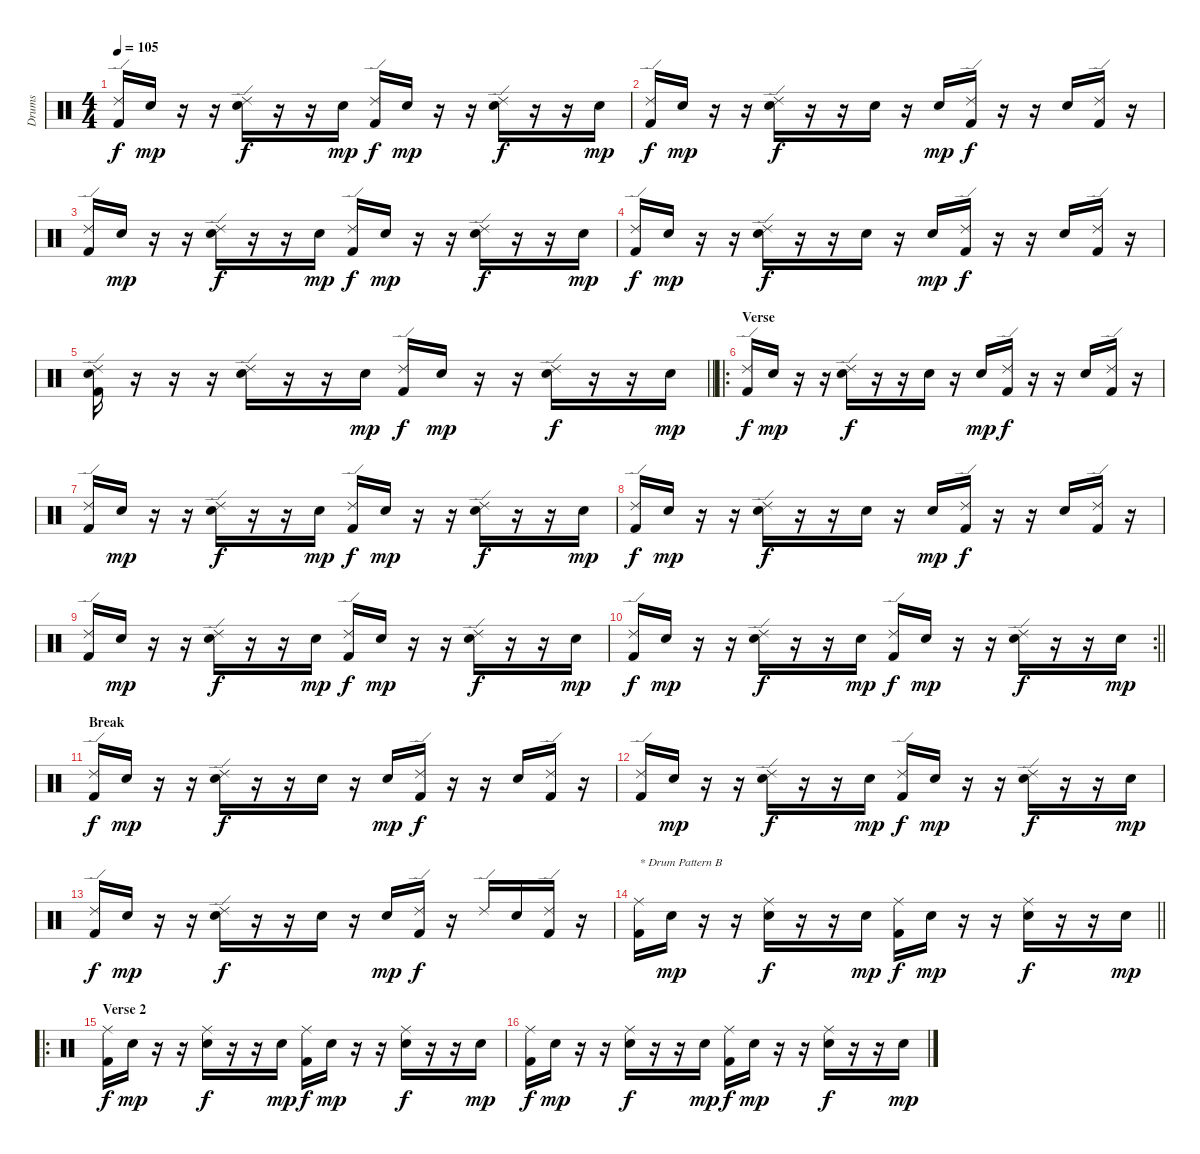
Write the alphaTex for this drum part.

\track ("Drums" "Drums") {instrument percussion}
\staff {score}
\articulation defaults
\ts (4 4)
\tempo 105
\clef neutral
\ks c
("Ride (edge) 2" "Kick (hit) 2").16{dy f} "Electric Snare (hit)".16{dy mp} r.16 r.16 ("Ride (edge) 2" "Electric Snare (hit)").16{dy f} r.16 r.16 "Electric Snare (hit)".16{dy mp} ("Ride (edge) 2" "Kick (hit) 2").16{dy f} "Electric Snare (hit)".16{dy mp} r.16 r.16 ("Ride (edge) 2" "Electric Snare (hit)").16{dy f} r.16 r.16 "Electric Snare (hit)".16{dy mp} |
("Ride (edge) 2" "Kick (hit) 2").16{dy f} "Electric Snare (hit)".16{dy mp} r.16 r.16 ("Ride (edge) 2" "Electric Snare (hit)").16{dy f} r.16 r.16 "Electric Snare (hit)".16 r.16 "Electric Snare (hit)".16{dy mp} ("Ride (edge) 2" "Kick (hit) 2").16{dy f} r.16 r.16 "Electric Snare (hit)".16 ("Ride (edge) 2" "Kick (hit) 2").16 r.16 |
("Ride (edge) 2" "Kick (hit) 2").16 "Electric Snare (hit)".16{dy mp} r.16 r.16 ("Ride (edge) 2" "Electric Snare (hit)").16{dy f} r.16 r.16 "Electric Snare (hit)".16{dy mp} ("Ride (edge) 2" "Kick (hit) 2").16{dy f} "Electric Snare (hit)".16{dy mp} r.16 r.16 ("Ride (edge) 2" "Electric Snare (hit)").16{dy f} r.16 r.16 "Electric Snare (hit)".16{dy mp} |
("Ride (edge) 2" "Kick (hit) 2").16{dy f} "Electric Snare (hit)".16{dy mp} r.16 r.16 ("Ride (edge) 2" "Electric Snare (hit)").16{dy f} r.16 r.16 "Electric Snare (hit)".16 r.16 "Electric Snare (hit)".16{dy mp} ("Ride (edge) 2" "Kick (hit) 2").16{dy f} r.16 r.16 "Electric Snare (hit)".16 ("Ride (edge) 2" "Kick (hit) 2").16 r.16 |
\barLineRight lightlight
("Ride (edge) 2" "Electric Snare (hit)" "Kick (hit) 2").16 r.16 r.16 r.16 ("Ride (edge) 2" "Electric Snare (hit)").16 r.16 r.16 "Electric Snare (hit)".16{dy mp} ("Ride (edge) 2" "Kick (hit) 2").16{dy f} "Electric Snare (hit)".16{dy mp} r.16 r.16 ("Ride (edge) 2" "Electric Snare (hit)").16{dy f} r.16 r.16 "Electric Snare (hit)".16{dy mp} |
\ro
\section ("" "Verse")
("Ride (edge) 2" "Kick (hit) 2").16{dy f} "Electric Snare (hit)".16{dy mp} r.16 r.16 ("Ride (edge) 2" "Electric Snare (hit)").16{dy f} r.16 r.16 "Electric Snare (hit)".16 r.16 "Electric Snare (hit)".16{dy mp} ("Ride (edge) 2" "Kick (hit) 2").16{dy f} r.16 r.16 "Electric Snare (hit)".16 ("Ride (edge) 2" "Kick (hit) 2").16 r.16 |
("Ride (edge) 2" "Kick (hit) 2").16 "Electric Snare (hit)".16{dy mp} r.16 r.16 ("Ride (edge) 2" "Electric Snare (hit)").16{dy f} r.16 r.16 "Electric Snare (hit)".16{dy mp} ("Ride (edge) 2" "Kick (hit) 2").16{dy f} "Electric Snare (hit)".16{dy mp} r.16 r.16 ("Ride (edge) 2" "Electric Snare (hit)").16{dy f} r.16 r.16 "Electric Snare (hit)".16{dy mp} |
("Ride (edge) 2" "Kick (hit) 2").16{dy f} "Electric Snare (hit)".16{dy mp} r.16 r.16 ("Ride (edge) 2" "Electric Snare (hit)").16{dy f} r.16 r.16 "Electric Snare (hit)".16 r.16 "Electric Snare (hit)".16{dy mp} ("Ride (edge) 2" "Kick (hit) 2").16{dy f} r.16 r.16 "Electric Snare (hit)".16 ("Ride (edge) 2" "Kick (hit) 2").16 r.16 |
("Ride (edge) 2" "Kick (hit) 2").16 "Electric Snare (hit)".16{dy mp} r.16 r.16 ("Ride (edge) 2" "Electric Snare (hit)").16{dy f} r.16 r.16 "Electric Snare (hit)".16{dy mp} ("Ride (edge) 2" "Kick (hit) 2").16{dy f} "Electric Snare (hit)".16{dy mp} r.16 r.16 ("Ride (edge) 2" "Electric Snare (hit)").16{dy f} r.16 r.16 "Electric Snare (hit)".16{dy mp} |
\rc 2
\barLineRight lightlight
("Ride (edge) 2" "Kick (hit) 2").16{dy f} "Electric Snare (hit)".16{dy mp} r.16 r.16 ("Ride (edge) 2" "Electric Snare (hit)").16{dy f} r.16 r.16 "Electric Snare (hit)".16{dy mp} ("Ride (edge) 2" "Kick (hit) 2").16{dy f} "Electric Snare (hit)".16{dy mp} r.16 r.16 ("Ride (edge) 2" "Electric Snare (hit)").16{dy f} r.16 r.16 "Electric Snare (hit)".16{dy mp} |
\section ("" "Break")
("Ride (edge) 2" "Kick (hit) 2").16{dy f} "Electric Snare (hit)".16{dy mp} r.16 r.16 ("Ride (edge) 2" "Electric Snare (hit)").16{dy f} r.16 r.16 "Electric Snare (hit)".16 r.16 "Electric Snare (hit)".16{dy mp} ("Ride (edge) 2" "Kick (hit) 2").16{dy f} r.16 r.16 "Electric Snare (hit)".16 ("Ride (edge) 2" "Kick (hit) 2").16 r.16 |
("Ride (edge) 2" "Kick (hit) 2").16 "Electric Snare (hit)".16{dy mp} r.16 r.16 ("Ride (edge) 2" "Electric Snare (hit)").16{dy f} r.16 r.16 "Electric Snare (hit)".16{dy mp} ("Ride (edge) 2" "Kick (hit) 2").16{dy f} "Electric Snare (hit)".16{dy mp} r.16 r.16 ("Ride (edge) 2" "Electric Snare (hit)").16{dy f} r.16 r.16 "Electric Snare (hit)".16{dy mp} |
("Ride (edge) 2" "Kick (hit) 2").16{dy f} "Electric Snare (hit)".16{dy mp} r.16 r.16 ("Ride (edge) 2" "Electric Snare (hit)").16{dy f} r.16 r.16 "Electric Snare (hit)".16 r.16 "Electric Snare (hit)".16{dy mp} ("Ride (edge) 2" "Kick (hit) 2").16{dy f} r.16 "Ride (edge) 2".16 "Electric Snare (hit)".16 ("Ride (edge) 2" "Kick (hit) 2").16 r.16 |
\barLineRight lightlight
("Ride (middle)" "Kick (hit) 2").16{txt "* Drum Pattern B"} "Electric Snare (hit)".16{dy mp} r.16 r.16 ("Ride (middle)" "Electric Snare (hit)").16{dy f} r.16 r.16 "Electric Snare (hit)".16{dy mp} ("Ride (middle)" "Kick (hit) 2").16{dy f} "Electric Snare (hit)".16{dy mp} r.16 r.16 ("Ride (middle)" "Electric Snare (hit)").16{dy f} r.16 r.16 "Electric Snare (hit)".16{dy mp} |
\ro
\section ("" "Verse 2")
("Ride (middle)" "Kick (hit) 2").16{dy f} "Electric Snare (hit)".16{dy mp} r.16 r.16 ("Ride (middle)" "Electric Snare (hit)").16{dy f} r.16 r.16 "Electric Snare (hit)".16{dy mp} ("Ride (middle)" "Kick (hit) 2").16{dy f} "Electric Snare (hit)".16{dy mp} r.16 r.16 ("Ride (middle)" "Electric Snare (hit)").16{dy f} r.16 r.16 "Electric Snare (hit)".16{dy mp} |
("Ride (middle)" "Kick (hit) 2").16{dy f} "Electric Snare (hit)".16{dy mp} r.16 r.16 ("Ride (middle)" "Electric Snare (hit)").16{dy f} r.16 r.16 "Electric Snare (hit)".16{dy mp} ("Ride (middle)" "Kick (hit) 2").16{dy f} "Electric Snare (hit)".16{dy mp} r.16 r.16 ("Ride (middle)" "Electric Snare (hit)").16{dy f} r.16 r.16 "Electric Snare (hit)".16{dy mp}
